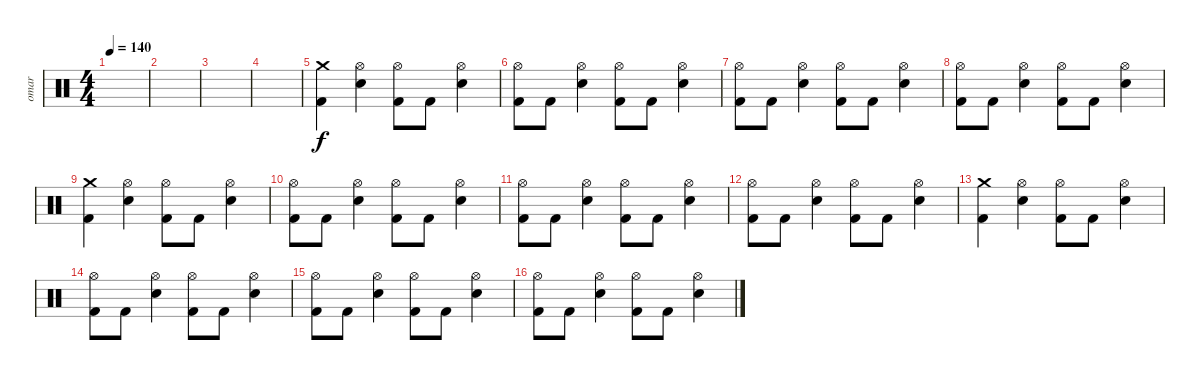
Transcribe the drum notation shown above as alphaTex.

\track ("omar" "omar") {instrument percussion}
\staff {score}
\articulation defaults
\ts (4 4)
\tempo 140
\clef neutral
\ks c
|
|
|
|
("Crash medium (hit)" "Kick (hit) 2").4 ("Hi-Hat (open)" "Electric Snare (hit)").4 ("Hi-Hat (open)" "Kick (hit) 2").8 "Kick (hit) 2".8 ("Hi-Hat (open)" "Electric Snare (hit)").4 |
("Hi-Hat (open)" "Kick (hit) 2").8 "Kick (hit) 2".8 ("Hi-Hat (open)" "Electric Snare (hit)").4 ("Hi-Hat (open)" "Kick (hit) 2").8 "Kick (hit) 2".8 ("Hi-Hat (open)" "Electric Snare (hit)").4 |
("Hi-Hat (open)" "Kick (hit) 2").8 "Kick (hit) 2".8 ("Hi-Hat (open)" "Electric Snare (hit)").4 ("Hi-Hat (open)" "Kick (hit) 2").8 "Kick (hit) 2".8 ("Hi-Hat (open)" "Electric Snare (hit)").4 |
("Hi-Hat (open)" "Kick (hit) 2").8 "Kick (hit) 2".8 ("Hi-Hat (open)" "Electric Snare (hit)").4 ("Hi-Hat (open)" "Kick (hit) 2").8 "Kick (hit) 2".8 ("Hi-Hat (open)" "Electric Snare (hit)").4 |
("Crash medium (hit)" "Kick (hit) 2").4 ("Hi-Hat (open)" "Electric Snare (hit)").4 ("Hi-Hat (open)" "Kick (hit) 2").8 "Kick (hit) 2".8 ("Hi-Hat (open)" "Electric Snare (hit)").4 |
("Hi-Hat (open)" "Kick (hit) 2").8 "Kick (hit) 2".8 ("Hi-Hat (open)" "Electric Snare (hit)").4 ("Hi-Hat (open)" "Kick (hit) 2").8 "Kick (hit) 2".8 ("Hi-Hat (open)" "Electric Snare (hit)").4 |
("Hi-Hat (open)" "Kick (hit) 2").8 "Kick (hit) 2".8 ("Hi-Hat (open)" "Electric Snare (hit)").4 ("Hi-Hat (open)" "Kick (hit) 2").8 "Kick (hit) 2".8 ("Hi-Hat (open)" "Electric Snare (hit)").4 |
("Hi-Hat (open)" "Kick (hit) 2").8 "Kick (hit) 2".8 ("Hi-Hat (open)" "Electric Snare (hit)").4 ("Hi-Hat (open)" "Kick (hit) 2").8 "Kick (hit) 2".8 ("Hi-Hat (open)" "Electric Snare (hit)").4 |
("Crash medium (hit)" "Kick (hit) 2").4 ("Hi-Hat (open)" "Electric Snare (hit)").4 ("Hi-Hat (open)" "Kick (hit) 2").8 "Kick (hit) 2".8 ("Hi-Hat (open)" "Electric Snare (hit)").4 |
("Hi-Hat (open)" "Kick (hit) 2").8 "Kick (hit) 2".8 ("Hi-Hat (open)" "Electric Snare (hit)").4 ("Hi-Hat (open)" "Kick (hit) 2").8 "Kick (hit) 2".8 ("Hi-Hat (open)" "Electric Snare (hit)").4 |
("Hi-Hat (open)" "Kick (hit) 2").8 "Kick (hit) 2".8 ("Hi-Hat (open)" "Electric Snare (hit)").4 ("Hi-Hat (open)" "Kick (hit) 2").8 "Kick (hit) 2".8 ("Hi-Hat (open)" "Electric Snare (hit)").4 |
("Hi-Hat (open)" "Kick (hit) 2").8 "Kick (hit) 2".8 ("Hi-Hat (open)" "Electric Snare (hit)").4 ("Hi-Hat (open)" "Kick (hit) 2").8 "Kick (hit) 2".8 ("Hi-Hat (open)" "Electric Snare (hit)").4
